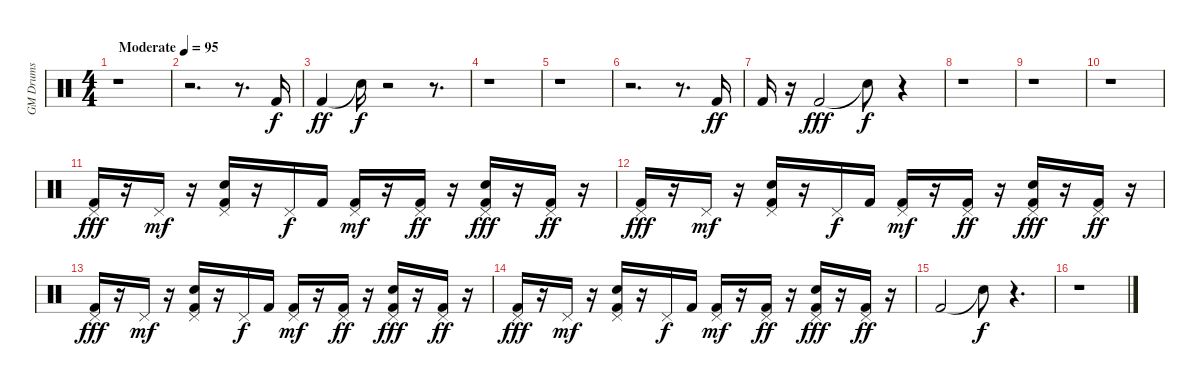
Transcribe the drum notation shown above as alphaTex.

\track ("GM Drums" "GM Drums") {instrument percussion}
\staff {score}
\articulation defaults
\ts (4 4)
\tempo (95 "Moderate")
\clef neutral
\ks c
r.1{dy f} |
r.2{d} r.8{d} "Kick (hit) 2".16 |
"Kick (hit) 2".4{dy ff} "Snare (hit)"{t}.16{dy f} r.2 r.8{d} |
r.1 |
r.1 |
r.2{d} r.8{d} "Kick (hit) 2".16{dy ff} |
"Kick (hit) 2".16 r.16 "Kick (hit) 2".2{dy fff} "Snare (hit)"{t}.8{dy f} r.4 |
r.1 |
r.1 |
r.1 |
("Kick (hit) 2" "Pedal Hi-Hat (hit)").16{dy fff} r.16 "Pedal Hi-Hat (hit)".16{dy mf} r.16 ("Kick (hit) 2" "Hand Clap (hit)" "Pedal Hi-Hat (hit)").16 r.16 "Pedal Hi-Hat (hit)".16{dy f} "Kick (hit) 2".16 ("Kick (hit) 2" "Pedal Hi-Hat (hit)").16{dy mf} r.16 ("Kick (hit) 2" "Pedal Hi-Hat (hit)").16{dy ff} r.16 ("Kick (hit) 2" "Hand Clap (hit)" "Pedal Hi-Hat (hit)").16{dy fff} r.16 ("Kick (hit) 2" "Pedal Hi-Hat (hit)").16{dy ff} r.16 |
("Kick (hit) 2" "Pedal Hi-Hat (hit)").16{dy fff} r.16 "Pedal Hi-Hat (hit)".16{dy mf} r.16 ("Kick (hit) 2" "Hand Clap (hit)" "Pedal Hi-Hat (hit)").16 r.16 "Pedal Hi-Hat (hit)".16{dy f} "Kick (hit) 2".16 ("Kick (hit) 2" "Pedal Hi-Hat (hit)").16{dy mf} r.16 ("Kick (hit) 2" "Pedal Hi-Hat (hit)").16{dy ff} r.16 ("Kick (hit) 2" "Hand Clap (hit)" "Pedal Hi-Hat (hit)").16{dy fff} r.16 ("Kick (hit) 2" "Pedal Hi-Hat (hit)").16{dy ff} r.16 |
("Kick (hit) 2" "Pedal Hi-Hat (hit)").16{dy fff} r.16 "Pedal Hi-Hat (hit)".16{dy mf} r.16 ("Kick (hit) 2" "Hand Clap (hit)" "Pedal Hi-Hat (hit)").16 r.16 "Pedal Hi-Hat (hit)".16{dy f} "Kick (hit) 2".16 ("Kick (hit) 2" "Pedal Hi-Hat (hit)").16{dy mf} r.16 ("Kick (hit) 2" "Pedal Hi-Hat (hit)").16{dy ff} r.16 ("Kick (hit) 2" "Hand Clap (hit)" "Pedal Hi-Hat (hit)").16{dy fff} r.16 ("Kick (hit) 2" "Pedal Hi-Hat (hit)").16{dy ff} r.16 |
("Kick (hit) 2" "Pedal Hi-Hat (hit)").16{dy fff} r.16 "Pedal Hi-Hat (hit)".16{dy mf} r.16 ("Kick (hit) 2" "Hand Clap (hit)" "Pedal Hi-Hat (hit)").16 r.16 "Pedal Hi-Hat (hit)".16{dy f} "Kick (hit) 2".16 ("Kick (hit) 2" "Pedal Hi-Hat (hit)").16{dy mf} r.16 ("Kick (hit) 2" "Pedal Hi-Hat (hit)").16{dy ff} r.16 ("Kick (hit) 2" "Hand Clap (hit)" "Pedal Hi-Hat (hit)").16{dy fff} r.16 ("Kick (hit) 2" "Pedal Hi-Hat (hit)").16{dy ff} r.16 |
"Kick (hit) 2".2 "Snare (hit)"{t}.8{dy f} r.4{d} |
r.1
